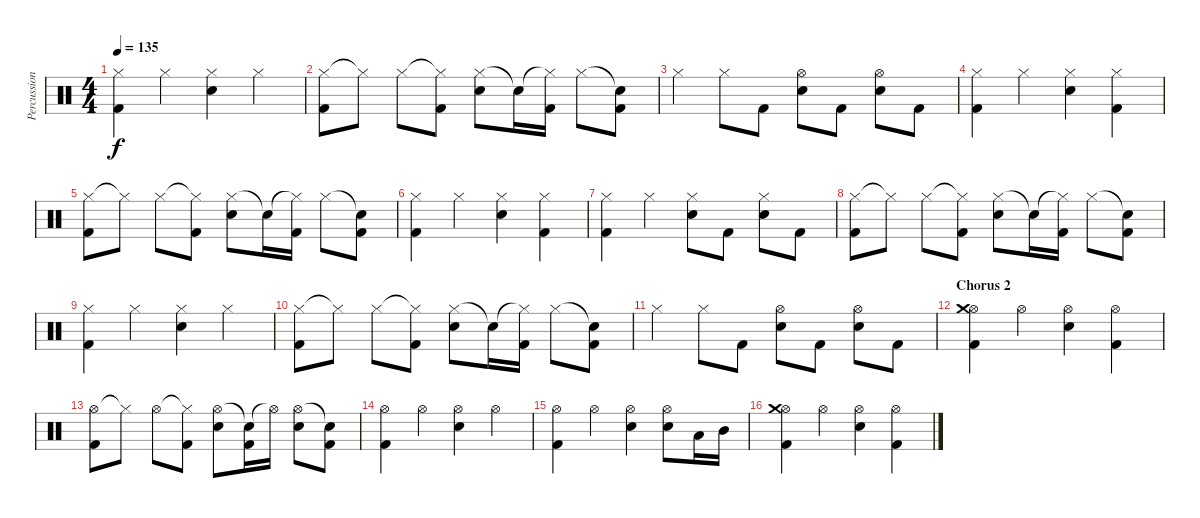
\track ("Percussion" "Percussion") {instrument percussion}
\staff {score}
\articulation defaults
\ts (4 4)
\tempo 135
\clef neutral
\ks c
("Hi-Hat (closed)" "Kick (hit) 2").4{dy f} "Hi-Hat (closed)".4 ("Hi-Hat (closed)" "Electric Snare (hit)").4 "Hi-Hat (closed)".4 |
("Hi-Hat (closed)" "Kick (hit) 2").8 "Hi-Hat (closed)"{t}.8 "Hi-Hat (closed)".8 ("Hi-Hat (closed)"{t} "Kick (hit) 2").8 ("Hi-Hat (closed)" "Electric Snare (hit)").8 "Snare (hit)"{t}.16 ("Hi-Hat (closed)"{t} "Kick (hit) 2").16 "Hi-Hat (closed)".8 ("Snare (hit)"{t} "Kick (hit) 2").8 |
"Hi-Hat (closed)".4 "Hi-Hat (closed)".8 "Kick (hit) 2".8 ("Hi-Hat (open)" "Electric Snare (hit)").8 "Kick (hit) 2".8 ("Hi-Hat (open)" "Electric Snare (hit)").8 "Kick (hit) 2".8 |
("Hi-Hat (closed)" "Kick (hit) 2").4 "Hi-Hat (closed)".4 ("Hi-Hat (closed)" "Electric Snare (hit)").4 ("Hi-Hat (closed)" "Kick (hit) 2").4 |
("Hi-Hat (closed)" "Kick (hit) 2").8 "Hi-Hat (closed)"{t}.8 "Hi-Hat (closed)".8 ("Hi-Hat (closed)"{t} "Kick (hit) 2").8 ("Hi-Hat (closed)" "Electric Snare (hit)").8 "Snare (hit)"{t}.16 ("Hi-Hat (closed)"{t} "Kick (hit) 2").16 "Hi-Hat (closed)".8 ("Snare (hit)"{t} "Kick (hit) 2").8 |
("Hi-Hat (closed)" "Kick (hit) 2").4 "Hi-Hat (closed)".4 ("Hi-Hat (closed)" "Electric Snare (hit)").4 ("Hi-Hat (closed)" "Kick (hit) 2").4 |
("Hi-Hat (closed)" "Kick (hit) 2").4 "Hi-Hat (closed)".4 ("Hi-Hat (closed)" "Electric Snare (hit)").8 "Kick (hit) 2".8 ("Hi-Hat (closed)" "Electric Snare (hit)").8 "Kick (hit) 2".8 |
("Hi-Hat (closed)" "Kick (hit) 2").8 "Hi-Hat (closed)"{t}.8 "Hi-Hat (closed)".8 ("Hi-Hat (closed)"{t} "Kick (hit) 2").8 ("Hi-Hat (closed)" "Electric Snare (hit)").8 "Snare (hit)"{t}.16 ("Hi-Hat (closed)"{t} "Kick (hit) 2").16 "Hi-Hat (closed)".8 ("Snare (hit)"{t} "Kick (hit) 2").8 |
("Hi-Hat (closed)" "Kick (hit) 2").4 "Hi-Hat (closed)".4 ("Hi-Hat (closed)" "Electric Snare (hit)").4 "Hi-Hat (closed)".4 |
("Hi-Hat (closed)" "Kick (hit) 2").8 "Hi-Hat (closed)"{t}.8 "Hi-Hat (closed)".8 ("Hi-Hat (closed)"{t} "Kick (hit) 2").8 ("Hi-Hat (closed)" "Electric Snare (hit)").8 "Snare (hit)"{t}.16 ("Hi-Hat (closed)"{t} "Kick (hit) 2").16 "Hi-Hat (closed)".8 ("Snare (hit)"{t} "Kick (hit) 2").8 |
"Hi-Hat (closed)".4 "Hi-Hat (closed)".8 "Kick (hit) 2".8 ("Hi-Hat (open)" "Electric Snare (hit)").8 "Kick (hit) 2".8 ("Hi-Hat (open)" "Electric Snare (hit)").8 "Kick (hit) 2".8 |
\section ("" "Chorus 2")
("Hi-Hat (open)" "Kick (hit) 2" "Crash medium (hit)").4 "Hi-Hat (open)".4 ("Hi-Hat (open)" "Electric Snare (hit)").4 ("Hi-Hat (open)" "Kick (hit) 2").4 |
("Hi-Hat (open)" "Kick (hit) 2").8 "Hi-Hat (closed)"{t}.8 "Hi-Hat (open)".8 ("Hi-Hat (closed)"{t} "Kick (hit) 2").8 ("Hi-Hat (open)" "Electric Snare (hit)").8 ("Snare (hit)"{t} "Kick (hit) 2").16 "Hi-Hat (open)"{t}.16 ("Hi-Hat (open)" "Electric Snare (hit)").8 ("Snare (hit)"{t} "Kick (hit) 2").8 |
("Hi-Hat (open)" "Kick (hit) 2").4 "Hi-Hat (open)".4 ("Hi-Hat (open)" "Electric Snare (hit)").4 "Hi-Hat (open)".4 |
("Hi-Hat (open)" "Kick (hit) 2").4 "Hi-Hat (open)".4 ("Hi-Hat (open)" "Electric Snare (hit)").4 ("Hi-Hat (open)" "Electric Snare (hit)").8 "Low Floor Tom (hit)".16 "Mid Tom (hit)".16 |
("Hi-Hat (open)" "Kick (hit) 2" "Crash medium (hit)").4 "Hi-Hat (open)".4 ("Hi-Hat (open)" "Electric Snare (hit)").4 ("Hi-Hat (open)" "Kick (hit) 2").4
